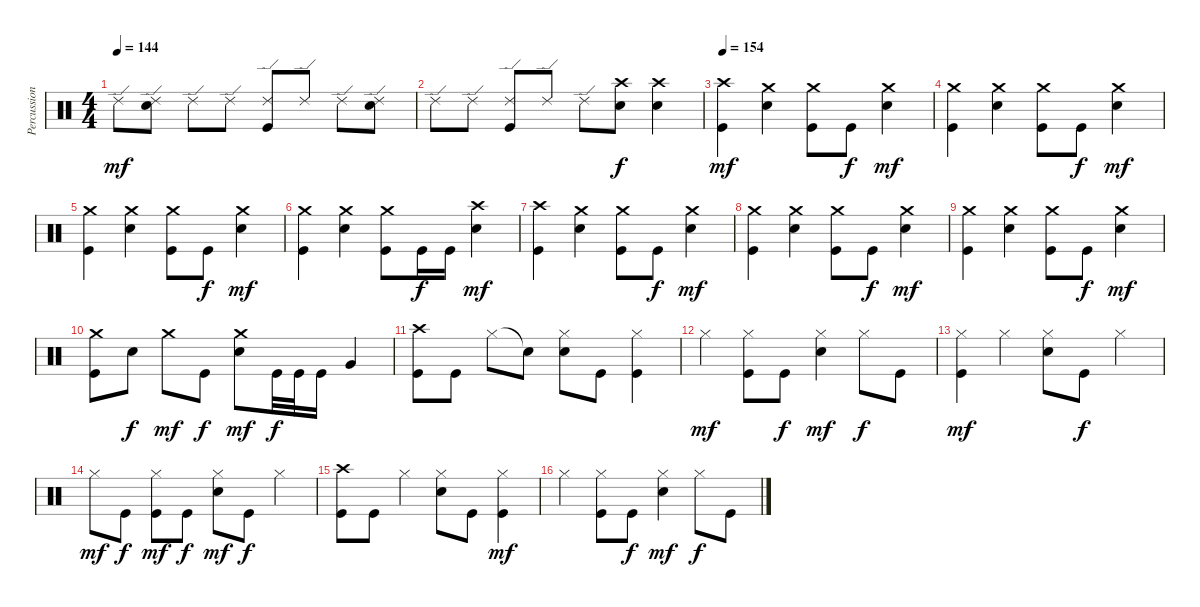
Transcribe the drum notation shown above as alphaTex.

\track ("Percussion" "Percussion") {instrument percussion}
\staff {score}
\articulation defaults
\ts (4 4)
\tempo 144
\clef neutral
\ks c "Ride (edge) 2".8{dy mf}
("Ride (edge) 2" "Electric Snare (hit)").8 "Ride (edge) 2".8 "Ride (edge) 2".8 ("Ride (edge) 2" "Kick (hit)").8 "Ride (edge) 2".8 "Ride (edge) 2".8 ("Ride (edge) 2" "Electric Snare (hit)").8 |
"Ride (edge) 2".8 "Ride (edge) 2".8 ("Ride (edge) 2" "Kick (hit)").8 "Ride (edge) 2".8 "Ride (edge) 2".8 ("Crash high (hit)" "Electric Snare (hit)").8{dy f} ("Crash high (hit)" "Electric Snare (hit)").4 |
\tempo 154
("Crash high (hit)" "Kick (hit)").4{dy mf} ("Crash medium (hit)" "Electric Snare (hit)").4 ("Crash medium (hit)" "Kick (hit)").8 "Kick (hit)".8{dy f} ("Crash medium (hit)" "Electric Snare (hit)").4{dy mf} |
("Crash medium (hit)" "Kick (hit)").4 ("Crash medium (hit)" "Electric Snare (hit)").4 ("Crash medium (hit)" "Kick (hit)").8 "Kick (hit)".8{dy f} ("Crash medium (hit)" "Electric Snare (hit)").4{dy mf} |
("Crash medium (hit)" "Kick (hit)").4 ("Crash medium (hit)" "Electric Snare (hit)").4 ("Crash medium (hit)" "Kick (hit)").8 "Kick (hit)".8{dy f} ("Crash medium (hit)" "Electric Snare (hit)").4{dy mf} |
("Crash medium (hit)" "Kick (hit)").4 ("Crash medium (hit)" "Electric Snare (hit)").4 ("Crash medium (hit)" "Kick (hit)").8 "Kick (hit)".16{dy f} "Kick (hit)".16 ("Crash high (hit)" "Electric Snare (hit)").4{dy mf} |
("Crash high (hit)" "Kick (hit)").4 ("Crash medium (hit)" "Electric Snare (hit)").4 ("Crash medium (hit)" "Kick (hit)").8 "Kick (hit)".8{dy f} ("Crash medium (hit)" "Electric Snare (hit)").4{dy mf} |
("Crash medium (hit)" "Kick (hit)").4 ("Crash medium (hit)" "Electric Snare (hit)").4 ("Crash medium (hit)" "Kick (hit)").8 "Kick (hit)".8{dy f} ("Crash medium (hit)" "Electric Snare (hit)").4{dy mf} |
("Crash medium (hit)" "Kick (hit)").4 ("Crash medium (hit)" "Electric Snare (hit)").4 ("Crash medium (hit)" "Kick (hit)").8 "Kick (hit)".8{dy f} ("Crash medium (hit)" "Electric Snare (hit)").4{dy mf} |
("Crash medium (hit)" "Kick (hit)").8 "Electric Snare (hit)".8{dy f} "Crash medium (hit)".8{dy mf} "Kick (hit)".8{dy f} ("Crash medium (hit)" "Electric Snare (hit)").8{dy mf} "Kick (hit)".32{dy f} "Kick (hit)".32 "Kick (hit)".16 "Very Low Tom (hit)".4 |
("Crash high (hit)" "Kick (hit)").8 "Kick (hit)".8 "Hi-Hat (closed)".8 "Snare (hit)"{t}.8 ("Hi-Hat (closed)" "Electric Snare (hit)").8 "Kick (hit)".8 ("Hi-Hat (closed)" "Kick (hit)").4 |
"Hi-Hat (closed)".4{dy mf} ("Hi-Hat (closed)" "Kick (hit)").8 "Kick (hit)".8{dy f} ("Hi-Hat (closed)" "Electric Snare (hit)").4{dy mf} "Hi-Hat (closed)".8{dy f} "Kick (hit)".8 |
("Hi-Hat (closed)" "Kick (hit)").4{dy mf} "Hi-Hat (closed)".4 ("Hi-Hat (closed)" "Electric Snare (hit)").8 "Kick (hit)".8{dy f} "Hi-Hat (closed)".4 |
"Hi-Hat (closed)".8{dy mf} "Kick (hit)".8{dy f} ("Hi-Hat (closed)" "Kick (hit)").8{dy mf} "Kick (hit)".8{dy f} ("Hi-Hat (closed)" "Electric Snare (hit)").8{dy mf} "Kick (hit)".8{dy f} "Hi-Hat (closed)".4 |
("Crash high (hit)" "Kick (hit)").8 "Kick (hit)".8 "Hi-Hat (closed)".4 ("Hi-Hat (closed)" "Electric Snare (hit)").8 "Kick (hit)".8 ("Hi-Hat (closed)" "Kick (hit)").4{dy mf} |
"Hi-Hat (closed)".4 ("Hi-Hat (closed)" "Kick (hit)").8 "Kick (hit)".8{dy f} ("Hi-Hat (closed)" "Electric Snare (hit)").4{dy mf} "Hi-Hat (closed)".8{dy f} "Kick (hit)".8
